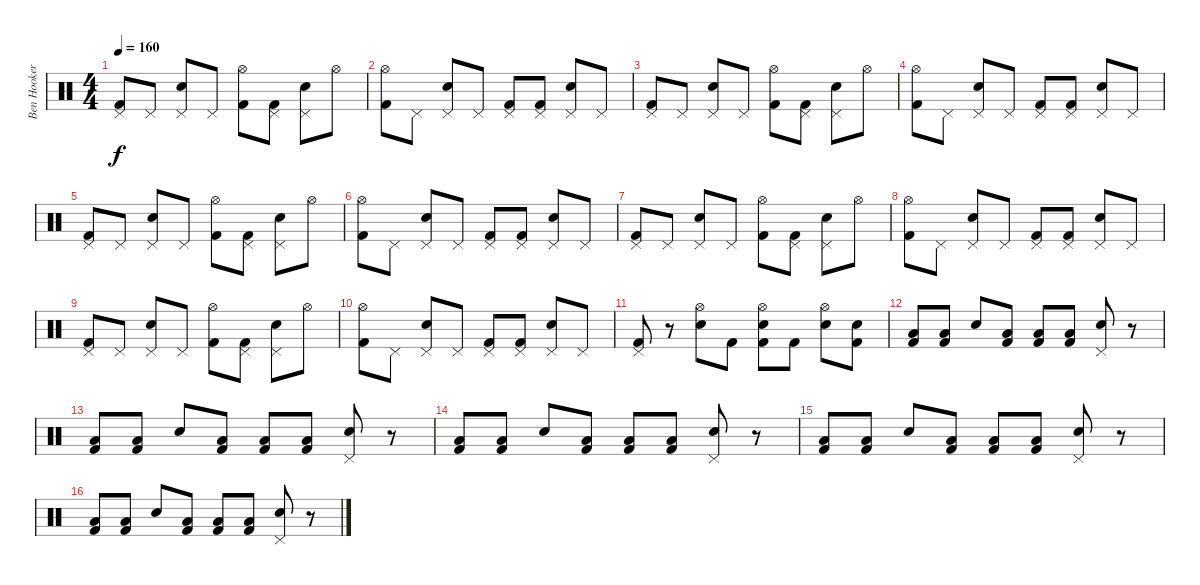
\track ("Ben Hooker" "Ben Hooker") {instrument percussion}
\staff {score}
\articulation defaults
\ts (4 4)
\tempo 160
\clef neutral
\ks c
("Pedal Hi-Hat (hit)" "Kick (hit) 2").8{dy f} "Pedal Hi-Hat (hit)".8 ("Pedal Hi-Hat (hit)" "Snare (hit) 2").8 "Pedal Hi-Hat (hit)".8 ("Hi-Hat (open)" "Kick (hit) 2").8 ("Pedal Hi-Hat (hit)" "Kick (hit) 2").8 ("Pedal Hi-Hat (hit)" "Snare (hit) 2").8 "Hi-Hat (open)".8 |
("Hi-Hat (open)" "Kick (hit) 2").8 "Pedal Hi-Hat (hit)".8 ("Pedal Hi-Hat (hit)" "Snare (hit) 2").8 "Pedal Hi-Hat (hit)".8 ("Pedal Hi-Hat (hit)" "Kick (hit) 2").8 ("Pedal Hi-Hat (hit)" "Kick (hit) 2").8 ("Pedal Hi-Hat (hit)" "Snare (hit) 2").8 "Pedal Hi-Hat (hit)".8 |
("Pedal Hi-Hat (hit)" "Kick (hit) 2").8 "Pedal Hi-Hat (hit)".8 ("Pedal Hi-Hat (hit)" "Snare (hit) 2").8 "Pedal Hi-Hat (hit)".8 ("Hi-Hat (open)" "Kick (hit) 2").8 ("Pedal Hi-Hat (hit)" "Kick (hit) 2").8 ("Pedal Hi-Hat (hit)" "Snare (hit) 2").8 "Hi-Hat (open)".8 |
("Hi-Hat (open)" "Kick (hit) 2").8 "Pedal Hi-Hat (hit)".8 ("Pedal Hi-Hat (hit)" "Snare (hit) 2").8 "Pedal Hi-Hat (hit)".8 ("Pedal Hi-Hat (hit)" "Kick (hit) 2").8 ("Pedal Hi-Hat (hit)" "Kick (hit) 2").8 ("Pedal Hi-Hat (hit)" "Snare (hit) 2").8 "Pedal Hi-Hat (hit)".8 |
("Pedal Hi-Hat (hit)" "Kick (hit) 2").8 "Pedal Hi-Hat (hit)".8 ("Pedal Hi-Hat (hit)" "Snare (hit) 2").8 "Pedal Hi-Hat (hit)".8 ("Hi-Hat (open)" "Kick (hit) 2").8 ("Pedal Hi-Hat (hit)" "Kick (hit) 2").8 ("Pedal Hi-Hat (hit)" "Snare (hit) 2").8 "Hi-Hat (open)".8 |
("Hi-Hat (open)" "Kick (hit) 2").8 "Pedal Hi-Hat (hit)".8 ("Pedal Hi-Hat (hit)" "Snare (hit) 2").8 "Pedal Hi-Hat (hit)".8 ("Pedal Hi-Hat (hit)" "Kick (hit) 2").8 ("Pedal Hi-Hat (hit)" "Kick (hit) 2").8 ("Pedal Hi-Hat (hit)" "Snare (hit) 2").8 "Pedal Hi-Hat (hit)".8 |
("Pedal Hi-Hat (hit)" "Kick (hit) 2").8 "Pedal Hi-Hat (hit)".8 ("Pedal Hi-Hat (hit)" "Snare (hit) 2").8 "Pedal Hi-Hat (hit)".8 ("Hi-Hat (open)" "Kick (hit) 2").8 ("Pedal Hi-Hat (hit)" "Kick (hit) 2").8 ("Pedal Hi-Hat (hit)" "Snare (hit) 2").8 "Hi-Hat (open)".8 |
("Hi-Hat (open)" "Kick (hit) 2").8 "Pedal Hi-Hat (hit)".8 ("Pedal Hi-Hat (hit)" "Snare (hit) 2").8 "Pedal Hi-Hat (hit)".8 ("Pedal Hi-Hat (hit)" "Kick (hit) 2").8 ("Pedal Hi-Hat (hit)" "Kick (hit) 2").8 ("Pedal Hi-Hat (hit)" "Snare (hit) 2").8 "Pedal Hi-Hat (hit)".8 |
("Pedal Hi-Hat (hit)" "Kick (hit) 2").8 "Pedal Hi-Hat (hit)".8 ("Pedal Hi-Hat (hit)" "Snare (hit) 2").8 "Pedal Hi-Hat (hit)".8 ("Hi-Hat (open)" "Kick (hit) 2").8 ("Pedal Hi-Hat (hit)" "Kick (hit) 2").8 ("Pedal Hi-Hat (hit)" "Snare (hit) 2").8 "Hi-Hat (open)".8 |
("Hi-Hat (open)" "Kick (hit) 2").8 "Pedal Hi-Hat (hit)".8 ("Pedal Hi-Hat (hit)" "Snare (hit) 2").8 "Pedal Hi-Hat (hit)".8 ("Pedal Hi-Hat (hit)" "Kick (hit) 2").8 ("Pedal Hi-Hat (hit)" "Kick (hit) 2").8 ("Pedal Hi-Hat (hit)" "Snare (hit) 2").8 "Pedal Hi-Hat (hit)".8 |
("Pedal Hi-Hat (hit)" "Kick (hit) 2").8 r.8 ("Hi-Hat (open)" "Snare (hit) 2").8 "Kick (hit) 2".8 ("Hi-Hat (open)" "Snare (hit) 2" "Kick (hit) 2").8 "Kick (hit) 2".8 ("Hi-Hat (open)" "Snare (hit) 2").8 ("Snare (hit) 2" "Kick (hit) 2").8 |
("Low Tom (hit)" "Kick (hit) 2").8 ("Low Tom (hit)" "Kick (hit) 2").8 "Snare (hit) 2".8 ("Low Tom (hit)" "Kick (hit) 2").8 ("Low Tom (hit)" "Kick (hit) 2").8 ("Low Tom (hit)" "Kick (hit) 2").8 ("Pedal Hi-Hat (hit)" "Snare (hit) 2").8 r.8 |
("Low Tom (hit)" "Kick (hit) 2").8 ("Low Tom (hit)" "Kick (hit) 2").8 "Snare (hit) 2".8 ("Low Tom (hit)" "Kick (hit) 2").8 ("Low Tom (hit)" "Kick (hit) 2").8 ("Low Tom (hit)" "Kick (hit) 2").8 ("Pedal Hi-Hat (hit)" "Snare (hit) 2").8 r.8 |
("Low Tom (hit)" "Kick (hit) 2").8 ("Low Tom (hit)" "Kick (hit) 2").8 "Snare (hit) 2".8 ("Low Tom (hit)" "Kick (hit) 2").8 ("Low Tom (hit)" "Kick (hit) 2").8 ("Low Tom (hit)" "Kick (hit) 2").8 ("Pedal Hi-Hat (hit)" "Snare (hit) 2").8 r.8 |
("Low Tom (hit)" "Kick (hit) 2").8 ("Low Tom (hit)" "Kick (hit) 2").8 "Snare (hit) 2".8 ("Low Tom (hit)" "Kick (hit) 2").8 ("Low Tom (hit)" "Kick (hit) 2").8 ("Low Tom (hit)" "Kick (hit) 2").8 ("Pedal Hi-Hat (hit)" "Snare (hit) 2").8 r.8 |
("Low Tom (hit)" "Kick (hit) 2").8 ("Low Tom (hit)" "Kick (hit) 2").8 "Snare (hit) 2".8 ("Low Tom (hit)" "Kick (hit) 2").8 ("Low Tom (hit)" "Kick (hit) 2").8 ("Low Tom (hit)" "Kick (hit) 2").8 ("Pedal Hi-Hat (hit)" "Snare (hit) 2").8 r.8
